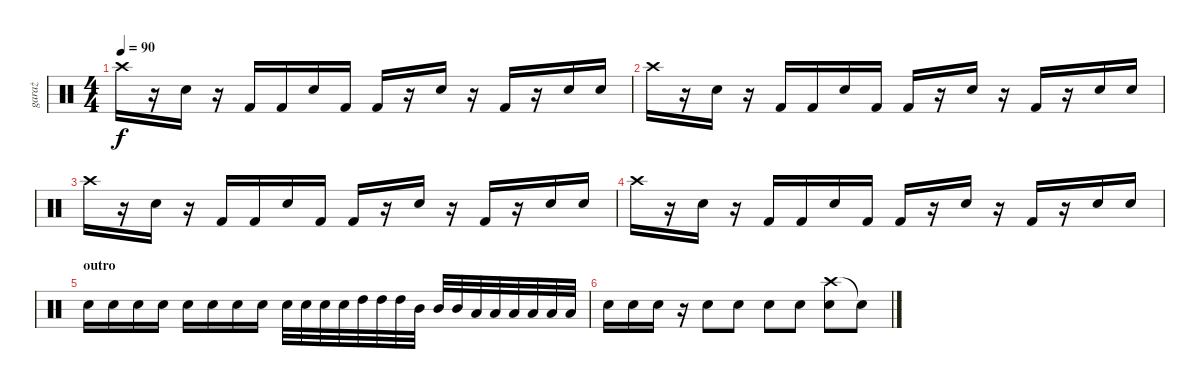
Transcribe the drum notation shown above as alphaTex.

\track ("garaż" "garaż") {instrument percussion}
\staff {score}
\articulation defaults
\ts (4 4)
\tempo 90
\clef neutral
\ks c "Crash high (hit)".16{dy f}
r.16 "Snare (hit) 2".16 r.16 "Kick (hit) 2".16 "Kick (hit) 2".16 "Snare (hit) 2".16 "Kick (hit) 2".16 "Kick (hit) 2".16 r.16 "Snare (hit) 2".16 r.16 "Kick (hit) 2".16 r.16 "Snare (hit) 2".16 "Snare (hit) 2".16 |
"Crash high (hit)".16 r.16 "Snare (hit) 2".16 r.16 "Kick (hit) 2".16 "Kick (hit) 2".16 "Snare (hit) 2".16 "Kick (hit) 2".16 "Kick (hit) 2".16 r.16 "Snare (hit) 2".16 r.16 "Kick (hit) 2".16 r.16 "Snare (hit) 2".16 "Snare (hit) 2".16 |
"Crash high (hit)".16 r.16 "Snare (hit) 2".16 r.16 "Kick (hit) 2".16 "Kick (hit) 2".16 "Snare (hit) 2".16 "Kick (hit) 2".16 "Kick (hit) 2".16 r.16 "Snare (hit) 2".16 r.16 "Kick (hit) 2".16 r.16 "Snare (hit) 2".16 "Snare (hit) 2".16 |
"Crash high (hit)".16 r.16 "Snare (hit) 2".16 r.16 "Kick (hit) 2".16 "Kick (hit) 2".16 "Snare (hit) 2".16 "Kick (hit) 2".16 "Kick (hit) 2".16 r.16 "Snare (hit) 2".16 r.16 "Kick (hit) 2".16 r.16 "Snare (hit) 2".16 "Snare (hit) 2".16 |
\section ("" "outro")
"Snare (hit) 2".16 "Snare (hit) 2".16 "Snare (hit) 2".16 "Snare (hit) 2".16 "Snare (hit) 2".16 "Snare (hit) 2".16 "Snare (hit) 2".16 "Snare (hit) 2".16 "Snare (hit) 2".32 "Snare (hit) 2".32 "Snare (hit) 2".32 "Snare (hit) 2".32 "High Tom (hit)".32 "High Tom (hit)".32 "High Tom (hit)".32 "Mid Tom (hit)".32 "Mid Tom (hit)".32 "Mid Tom (hit)".32 "Low Tom (hit)".32 "Low Tom (hit)".32 "Low Tom (hit)".32 "Low Floor Tom (hit)".32 "Low Floor Tom (hit)".32 "Low Floor Tom (hit)".32 |
"Snare (hit) 2".16 "Snare (hit) 2".16 "Snare (hit) 2".16 r.16 "Snare (hit) 2".8 "Snare (hit) 2".8 "Snare (hit) 2".8 "Snare (hit) 2".8 ("Crash high (hit)" "Snare (hit) 2").8 "Snare (hit)"{t}.8
